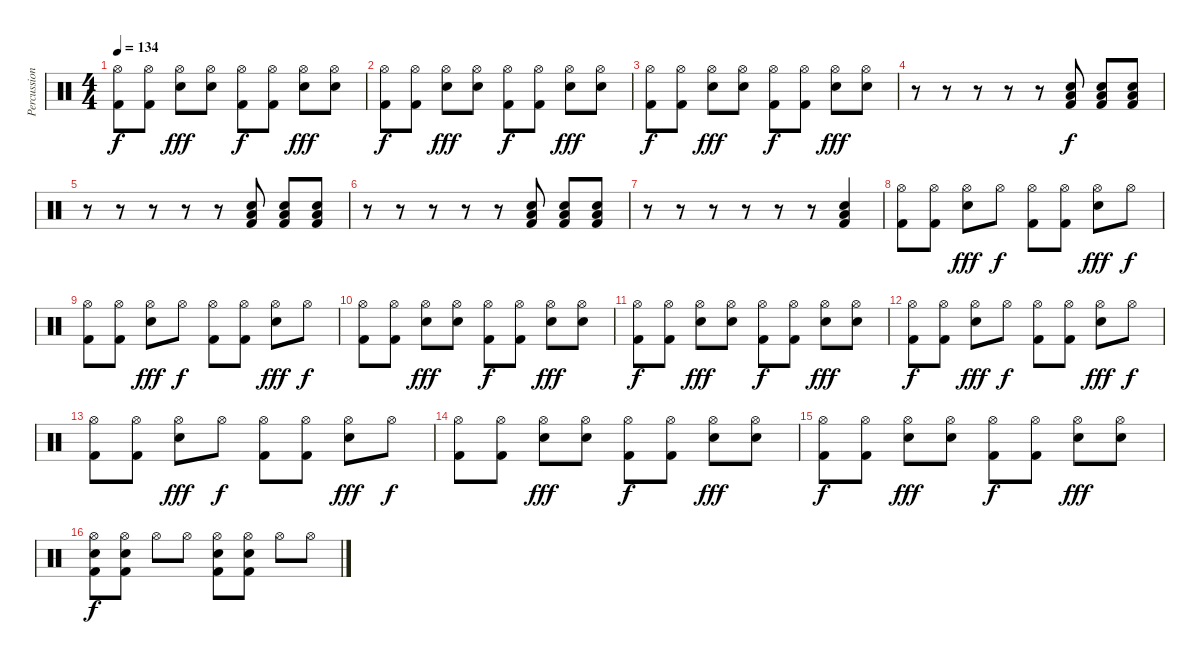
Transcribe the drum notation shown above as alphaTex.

\track ("Percussion" "Percussion") {instrument percussion}
\staff {score}
\articulation defaults
\ts (4 4)
\tempo 134
\clef neutral
\ks c
("Hi-Hat (open)" "Kick (hit) 2").8{dy f} ("Hi-Hat (open)" "Kick (hit) 2").8 ("Hi-Hat (open)" "Snare (hit) 2").8{dy fff} ("Hi-Hat (open)" "Snare (hit) 2").8 ("Hi-Hat (open)" "Kick (hit) 2").8{dy f} ("Hi-Hat (open)" "Kick (hit) 2").8 ("Hi-Hat (open)" "Snare (hit) 2").8{dy fff} ("Hi-Hat (open)" "Snare (hit) 2").8 |
("Hi-Hat (open)" "Kick (hit) 2").8{dy f} ("Hi-Hat (open)" "Kick (hit) 2").8 ("Hi-Hat (open)" "Snare (hit) 2").8{dy fff} ("Hi-Hat (open)" "Snare (hit) 2").8 ("Hi-Hat (open)" "Kick (hit) 2").8{dy f} ("Hi-Hat (open)" "Kick (hit) 2").8 ("Hi-Hat (open)" "Snare (hit) 2").8{dy fff} ("Hi-Hat (open)" "Snare (hit) 2").8 |
("Hi-Hat (open)" "Kick (hit) 2").8{dy f} ("Hi-Hat (open)" "Kick (hit) 2").8 ("Hi-Hat (open)" "Snare (hit) 2").8{dy fff} ("Hi-Hat (open)" "Snare (hit) 2").8 ("Hi-Hat (open)" "Kick (hit) 2").8{dy f} ("Hi-Hat (open)" "Kick (hit) 2").8 ("Hi-Hat (open)" "Snare (hit) 2").8{dy fff} ("Hi-Hat (open)" "Snare (hit) 2").8 |
r.8 r.8 r.8 r.8 r.8 ("Low Tom (hit)" "Snare (hit) 2" "Kick (hit) 2").8{dy f} ("Low Tom (hit)" "Snare (hit) 2" "Kick (hit) 2").8 ("Low Tom (hit)" "Snare (hit) 2" "Kick (hit) 2").8 |
r.8 r.8 r.8 r.8 r.8 ("Low Tom (hit)" "Snare (hit) 2" "Kick (hit) 2").8 ("Low Tom (hit)" "Snare (hit) 2" "Kick (hit) 2").8 ("Low Tom (hit)" "Snare (hit) 2" "Kick (hit) 2").8 |
r.8 r.8 r.8 r.8 r.8 ("Low Tom (hit)" "Snare (hit) 2" "Kick (hit) 2").8 ("Low Tom (hit)" "Snare (hit) 2" "Kick (hit) 2").8 ("Low Tom (hit)" "Snare (hit) 2" "Kick (hit) 2").8 |
r.8 r.8 r.8 r.8 r.8 r.8 ("Low Tom (hit)" "Snare (hit) 2" "Kick (hit) 2").4 |
("Hi-Hat (open)" "Kick (hit) 2").8 ("Hi-Hat (open)" "Kick (hit) 2").8 ("Hi-Hat (open)" "Snare (hit) 2").8{dy fff} "Hi-Hat (open)".8{dy f} ("Hi-Hat (open)" "Kick (hit) 2").8 ("Hi-Hat (open)" "Kick (hit) 2").8 ("Hi-Hat (open)" "Snare (hit) 2").8{dy fff} "Hi-Hat (open)".8{dy f} |
("Hi-Hat (open)" "Kick (hit) 2").8 ("Hi-Hat (open)" "Kick (hit) 2").8 ("Hi-Hat (open)" "Snare (hit) 2").8{dy fff} "Hi-Hat (open)".8{dy f} ("Hi-Hat (open)" "Kick (hit) 2").8 ("Hi-Hat (open)" "Kick (hit) 2").8 ("Hi-Hat (open)" "Snare (hit) 2").8{dy fff} "Hi-Hat (open)".8{dy f} |
("Hi-Hat (open)" "Kick (hit) 2").8 ("Hi-Hat (open)" "Kick (hit) 2").8 ("Hi-Hat (open)" "Snare (hit) 2").8{dy fff} ("Hi-Hat (open)" "Snare (hit) 2").8 ("Hi-Hat (open)" "Kick (hit) 2").8{dy f} ("Hi-Hat (open)" "Kick (hit) 2").8 ("Hi-Hat (open)" "Snare (hit) 2").8{dy fff} ("Hi-Hat (open)" "Snare (hit) 2").8 |
("Hi-Hat (open)" "Kick (hit) 2").8{dy f} ("Hi-Hat (open)" "Kick (hit) 2").8 ("Hi-Hat (open)" "Snare (hit) 2").8{dy fff} ("Hi-Hat (open)" "Snare (hit) 2").8 ("Hi-Hat (open)" "Kick (hit) 2").8{dy f} ("Hi-Hat (open)" "Kick (hit) 2").8 ("Hi-Hat (open)" "Snare (hit) 2").8{dy fff} ("Hi-Hat (open)" "Snare (hit) 2").8 |
("Hi-Hat (open)" "Kick (hit) 2").8{dy f} ("Hi-Hat (open)" "Kick (hit) 2").8 ("Hi-Hat (open)" "Snare (hit) 2").8{dy fff} "Hi-Hat (open)".8{dy f} ("Hi-Hat (open)" "Kick (hit) 2").8 ("Hi-Hat (open)" "Kick (hit) 2").8 ("Hi-Hat (open)" "Snare (hit) 2").8{dy fff} "Hi-Hat (open)".8{dy f} |
("Hi-Hat (open)" "Kick (hit) 2").8 ("Hi-Hat (open)" "Kick (hit) 2").8 ("Hi-Hat (open)" "Snare (hit) 2").8{dy fff} "Hi-Hat (open)".8{dy f} ("Hi-Hat (open)" "Kick (hit) 2").8 ("Hi-Hat (open)" "Kick (hit) 2").8 ("Hi-Hat (open)" "Snare (hit) 2").8{dy fff} "Hi-Hat (open)".8{dy f} |
("Hi-Hat (open)" "Kick (hit) 2").8 ("Hi-Hat (open)" "Kick (hit) 2").8 ("Hi-Hat (open)" "Snare (hit) 2").8{dy fff} ("Hi-Hat (open)" "Snare (hit) 2").8 ("Hi-Hat (open)" "Kick (hit) 2").8{dy f} ("Hi-Hat (open)" "Kick (hit) 2").8 ("Hi-Hat (open)" "Snare (hit) 2").8{dy fff} ("Hi-Hat (open)" "Snare (hit) 2").8 |
("Hi-Hat (open)" "Kick (hit) 2").8{dy f} ("Hi-Hat (open)" "Kick (hit) 2").8 ("Hi-Hat (open)" "Snare (hit) 2").8{dy fff} ("Hi-Hat (open)" "Snare (hit) 2").8 ("Hi-Hat (open)" "Kick (hit) 2").8{dy f} ("Hi-Hat (open)" "Kick (hit) 2").8 ("Hi-Hat (open)" "Snare (hit) 2").8{dy fff} ("Hi-Hat (open)" "Snare (hit) 2").8 |
("Hi-Hat (open)" "Snare (hit) 2" "Kick (hit) 2").8{dy f} ("Hi-Hat (open)" "Snare (hit) 2" "Kick (hit) 2").8 "Hi-Hat (open)".8 "Hi-Hat (open)".8 ("Hi-Hat (open)" "Snare (hit) 2" "Kick (hit) 2").8 ("Hi-Hat (open)" "Snare (hit) 2" "Kick (hit) 2").8 "Hi-Hat (open)".8 "Hi-Hat (open)".8
